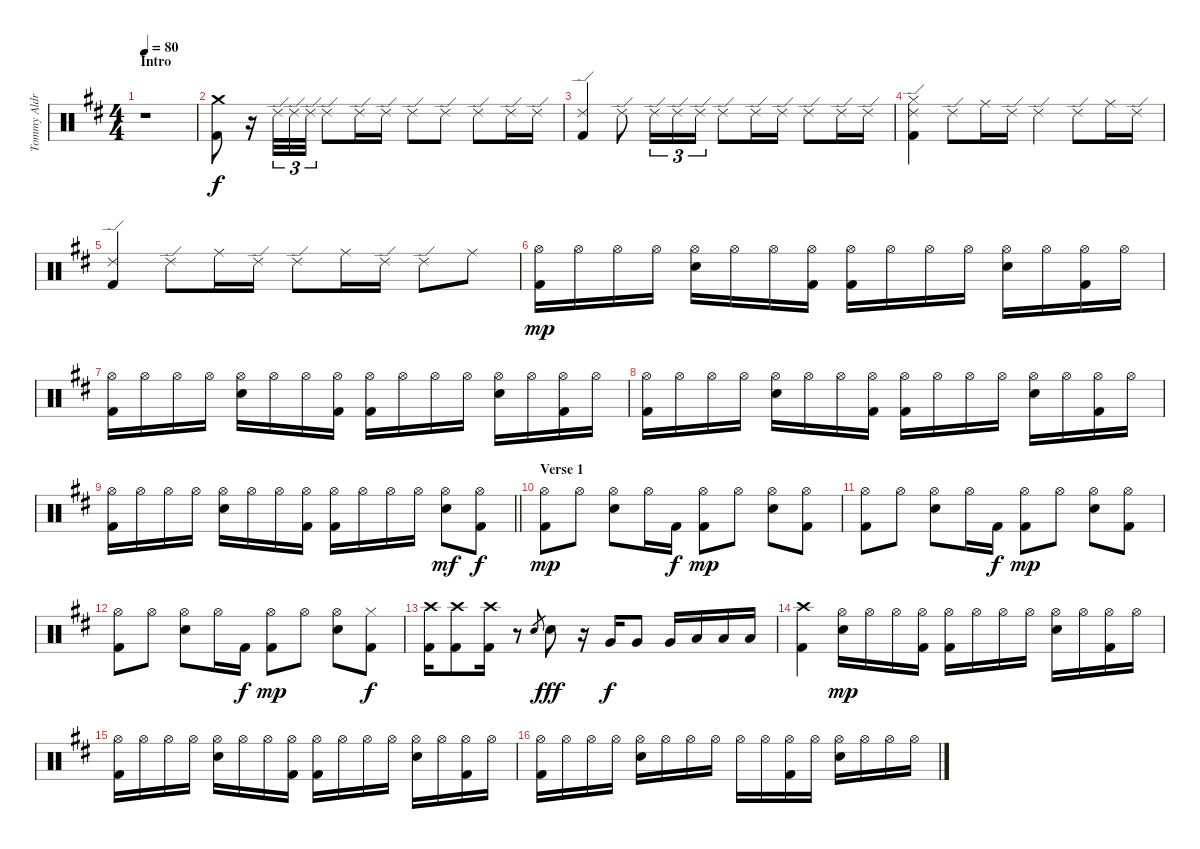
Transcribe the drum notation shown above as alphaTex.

\track ("Tommy Aldridge" "Tommy Aldr") {instrument percussion}
\staff {score}
\articulation defaults
\ts (4 4)
\section ("" "Intro")
\tempo 80
\clef neutral
\ks bminor
r.1{dy f} |
("Crash medium (hit)" "Kick (hit) 2").8 r.16 "Ride (edge) 2".32{tu (3 2)} "Ride (edge) 2".32{tu (3 2)} "Ride (edge) 2".32{tu (3 2)} "Ride (edge) 2".8 "Ride (edge) 2".16 "Ride (edge) 2".16 "Ride (edge) 2".8 "Ride (edge) 2".8 "Ride (edge) 2".8 "Ride (edge) 2".16 "Ride (edge) 2".16 |
("Ride (edge) 2" "Kick (hit) 2").4 "Ride (edge) 2".8 "Ride (edge) 2".16{tu (3 2)} "Ride (edge) 2".16{tu (3 2)} "Ride (edge) 2".16{tu (3 2)} "Ride (edge) 2".8 "Ride (edge) 2".16 "Ride (edge) 2".16 "Ride (edge) 2".8 "Ride (edge) 2".16 "Ride (edge) 2".16 |
("Ride (edge) 2" "Hi-Hat (closed)" "Kick (hit) 2").4 "Ride (edge) 2".8 "Ride (middle)".16 "Ride (edge) 2".16 "Ride (edge) 2".4 "Ride (edge) 2".8 "Ride (middle)".16 "Ride (edge) 2".16 |
("Ride (edge) 2" "Kick (hit) 2").4 "Ride (edge) 2".8 "Ride (middle)".16 "Ride (edge) 2".16 "Ride (edge) 2".8 "Ride (middle)".16 "Ride (edge) 2".16 "Ride (edge) 2".8 "Ride (middle)".8 |
("Hi-Hat (open)" "Kick (hit) 2").16{dy mp} "Hi-Hat (open)".16 "Hi-Hat (open)".16 "Hi-Hat (open)".16 ("Hi-Hat (open)" "Snare (hit) 2").16 "Hi-Hat (open)".16 "Hi-Hat (open)".16 ("Hi-Hat (open)" "Kick (hit) 2").16 ("Hi-Hat (open)" "Kick (hit) 2").16 "Hi-Hat (open)".16 "Hi-Hat (open)".16 "Hi-Hat (open)".16 ("Hi-Hat (open)" "Snare (hit) 2").16 "Hi-Hat (open)".16 ("Hi-Hat (open)" "Kick (hit) 2").16 "Hi-Hat (open)".16 |
("Hi-Hat (open)" "Kick (hit) 2").16 "Hi-Hat (open)".16 "Hi-Hat (open)".16 "Hi-Hat (open)".16 ("Hi-Hat (open)" "Snare (hit) 2").16 "Hi-Hat (open)".16 "Hi-Hat (open)".16 ("Hi-Hat (open)" "Kick (hit) 2").16 ("Hi-Hat (open)" "Kick (hit) 2").16 "Hi-Hat (open)".16 "Hi-Hat (open)".16 "Hi-Hat (open)".16 ("Hi-Hat (open)" "Snare (hit) 2").16 "Hi-Hat (open)".16 ("Hi-Hat (open)" "Kick (hit) 2").16 "Hi-Hat (open)".16 |
("Hi-Hat (open)" "Kick (hit) 2").16 "Hi-Hat (open)".16 "Hi-Hat (open)".16 "Hi-Hat (open)".16 ("Hi-Hat (open)" "Snare (hit) 2").16 "Hi-Hat (open)".16 "Hi-Hat (open)".16 ("Hi-Hat (open)" "Kick (hit) 2").16 ("Hi-Hat (open)" "Kick (hit) 2").16 "Hi-Hat (open)".16 "Hi-Hat (open)".16 "Hi-Hat (open)".16 ("Hi-Hat (open)" "Snare (hit) 2").16 "Hi-Hat (open)".16 ("Hi-Hat (open)" "Kick (hit) 2").16 "Hi-Hat (open)".16 |
\barLineRight lightlight
("Hi-Hat (open)" "Kick (hit) 2").16 "Hi-Hat (open)".16 "Hi-Hat (open)".16 "Hi-Hat (open)".16 ("Hi-Hat (open)" "Snare (hit) 2").16 "Hi-Hat (open)".16 "Hi-Hat (open)".16 ("Hi-Hat (open)" "Kick (hit) 2").16 ("Hi-Hat (open)" "Kick (hit) 2").16 "Hi-Hat (open)".16 "Hi-Hat (open)".16 "Hi-Hat (open)".16 ("Hi-Hat (open)" "Snare (hit) 2").8{dy mf} ("Hi-Hat (open)" "Kick (hit) 2").8{dy f} |
\section ("" "Verse 1")
("Hi-Hat (open)" "Kick (hit) 2").8{dy mp} "Hi-Hat (open)".8 ("Hi-Hat (open)" "Snare (hit) 2").8 "Hi-Hat (open)".16 "Kick (hit) 2".16{dy f} ("Hi-Hat (open)" "Kick (hit) 2").8{dy mp} "Hi-Hat (open)".8 ("Hi-Hat (open)" "Snare (hit) 2").8 ("Hi-Hat (open)" "Kick (hit) 2").8 |
("Hi-Hat (open)" "Kick (hit) 2").8 "Hi-Hat (open)".8 ("Hi-Hat (open)" "Snare (hit) 2").8 "Hi-Hat (open)".16 "Kick (hit) 2".16{dy f} ("Hi-Hat (open)" "Kick (hit) 2").8{dy mp} "Hi-Hat (open)".8 ("Hi-Hat (open)" "Snare (hit) 2").8 ("Hi-Hat (open)" "Kick (hit) 2").8 |
("Hi-Hat (open)" "Kick (hit) 2").8 "Hi-Hat (open)".8 ("Hi-Hat (open)" "Snare (hit) 2").8 "Hi-Hat (open)".16 "Kick (hit) 2".16{dy f} ("Hi-Hat (open)" "Kick (hit) 2").8{dy mp} "Hi-Hat (open)".8 ("Hi-Hat (open)" "Snare (hit) 2").8 ("Hi-Hat (closed)" "Kick (hit) 2").8{dy f} |
("Crash high (hit)" "Kick (hit) 2").16 ("Crash high (hit)" "Kick (hit) 2").8 ("Crash high (hit)" "Kick (hit) 2").16 r.8 "Snare (hit) 2".8{gr} "Snare (hit) 2".8{dy fff} r.16 "Very Low Tom (hit)".16{dy f} "Very Low Tom (hit)".8 "Very Low Tom (hit)".16 "Low Floor Tom (hit)".16 "Low Floor Tom (hit)".16 "Low Floor Tom (hit)".16 |
("Crash high (hit)" "Kick (hit) 2").4 ("Hi-Hat (open)" "Snare (hit) 2").16{dy mp} "Hi-Hat (open)".16 "Hi-Hat (open)".16 ("Hi-Hat (open)" "Kick (hit) 2").16 ("Hi-Hat (open)" "Kick (hit) 2").16 "Hi-Hat (open)".16 "Hi-Hat (open)".16 "Hi-Hat (open)".16 ("Hi-Hat (open)" "Snare (hit) 2").16 "Hi-Hat (open)".16 ("Hi-Hat (open)" "Kick (hit) 2").16 "Hi-Hat (open)".16 |
("Hi-Hat (open)" "Kick (hit) 2").16 "Hi-Hat (open)".16 "Hi-Hat (open)".16 "Hi-Hat (open)".16 ("Hi-Hat (open)" "Snare (hit) 2").16 "Hi-Hat (open)".16 "Hi-Hat (open)".16 ("Hi-Hat (open)" "Kick (hit) 2").16 ("Hi-Hat (open)" "Kick (hit) 2").16 "Hi-Hat (open)".16 "Hi-Hat (open)".16 "Hi-Hat (open)".16 ("Hi-Hat (open)" "Snare (hit) 2").16 "Hi-Hat (open)".16 ("Hi-Hat (open)" "Kick (hit) 2").16 "Hi-Hat (open)".16 |
("Hi-Hat (open)" "Kick (hit) 2").16 "Hi-Hat (open)".16 "Hi-Hat (open)".16 "Hi-Hat (open)".16 ("Hi-Hat (open)" "Snare (hit) 2").16 "Hi-Hat (open)".16 "Hi-Hat (open)".16 "Hi-Hat (open)".16 "Hi-Hat (open)".16 "Hi-Hat (open)".16 ("Hi-Hat (open)" "Kick (hit) 2").16 "Hi-Hat (open)".16 ("Hi-Hat (open)" "Snare (hit) 2").16 "Hi-Hat (open)".16 "Hi-Hat (open)".16 "Hi-Hat (open)".16
